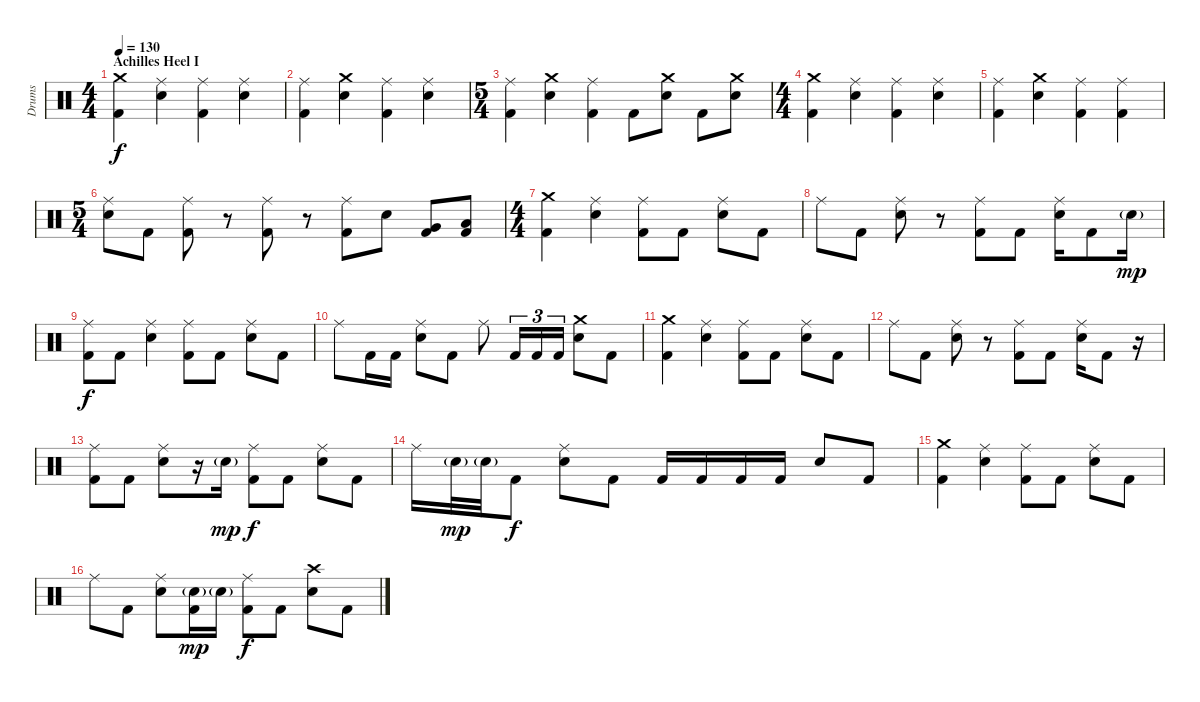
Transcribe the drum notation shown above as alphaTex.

\track ("Drums" "Drums") {instrument percussion}
\staff {score}
\articulation defaults
\ts (4 4)
\section ("" "Achilles Heel I")
\tempo 130
\clef neutral
\ks c
("Crash medium (hit)" "Kick (hit) 2").4{dy f} ("Ride (middle)" "Electric Snare (hit)").4 ("Ride (middle)" "Kick (hit) 2").4 ("Ride (middle)" "Electric Snare (hit)").4 |
("Ride (middle)" "Kick (hit) 2").4 ("Crash medium (hit)" "Electric Snare (hit)").4 ("Ride (middle)" "Kick (hit) 2").4 ("Ride (middle)" "Electric Snare (hit)").4 |
\ts (5 4)
("Ride (middle)" "Kick (hit) 2").4 ("Crash medium (hit)" "Electric Snare (hit)").4 ("Ride (middle)" "Kick (hit) 2").4 "Kick (hit) 2".8 ("Crash medium (hit)" "Electric Snare (hit)").8 "Kick (hit) 2".8 ("Crash medium (hit)" "Electric Snare (hit)").8 |
\ts (4 4)
("Crash medium (hit)" "Kick (hit) 2").4 ("Ride (middle)" "Electric Snare (hit)").4 ("Ride (middle)" "Kick (hit) 2").4 ("Ride (middle)" "Electric Snare (hit)").4 |
("Ride (middle)" "Kick (hit) 2").4 ("Crash medium (hit)" "Electric Snare (hit)").4 ("Ride (middle)" "Kick (hit) 2").4 ("Ride (middle)" "Kick (hit) 2").4 |
\ts (5 4)
("Ride (middle)" "Electric Snare (hit)").8 "Kick (hit) 2".8 ("Ride (middle)" "Kick (hit) 2").8 r.8 ("Ride (middle)" "Kick (hit) 2").8 r.8 ("Ride (middle)" "Kick (hit) 2").8 "Electric Snare (hit)".8 ("Very Low Tom (hit)" "Kick (hit) 2").8 ("Low Floor Tom (hit)" "Kick (hit) 2").8 |
\ts (4 4)
\section ("" "")
("Crash medium (hit)" "Kick (hit) 2").4 ("Ride (middle)" "Electric Snare (hit)").4 ("Ride (middle)" "Kick (hit) 2").8 "Kick (hit) 2".8 ("Ride (middle)" "Electric Snare (hit)").8 "Kick (hit) 2".8 |
"Ride (middle)".8 "Kick (hit) 2".8 ("Ride (middle)" "Electric Snare (hit)").8 r.8 ("Ride (middle)" "Kick (hit) 2").8 "Kick (hit) 2".8 ("Ride (middle)" "Electric Snare (hit)").16 "Kick (hit) 2".8 "Electric Snare (hit)"{g}.16{dy mp} |
("Ride (middle)" "Kick (hit) 2").8{dy f} "Kick (hit) 2".8 ("Ride (middle)" "Electric Snare (hit)").4 ("Ride (middle)" "Kick (hit) 2").8 "Kick (hit) 2".8 ("Ride (middle)" "Electric Snare (hit)").8 "Kick (hit) 2".8 |
"Ride (middle)".8 "Kick (hit) 2".16 "Kick (hit) 2".16 ("Ride (middle)" "Electric Snare (hit)").8 "Kick (hit) 2".8 "Ride (middle)".8 "Kick (hit) 2".16{tu (3 2)} "Kick (hit) 2".16{tu (3 2)} "Kick (hit) 2".16{tu (3 2)} ("Crash medium (hit)" "Electric Snare (hit)").8 "Kick (hit) 2".8 |
\section ("" "")
("Crash medium (hit)" "Kick (hit) 2").4 ("Ride (middle)" "Electric Snare (hit)").4 ("Ride (middle)" "Kick (hit) 2").8 "Kick (hit) 2".8 ("Ride (middle)" "Electric Snare (hit)").8 "Kick (hit) 2".8 |
"Ride (middle)".8 "Kick (hit) 2".8 ("Ride (middle)" "Electric Snare (hit)").8 r.8 ("Ride (middle)" "Kick (hit) 2").8 "Kick (hit) 2".8 ("Ride (middle)" "Electric Snare (hit)").16 "Kick (hit) 2".8 r.16 |
("Ride (middle)" "Kick (hit) 2").8 "Kick (hit) 2".8 ("Ride (middle)" "Electric Snare (hit)").8 r.16 "Electric Snare (hit)"{g}.16{dy mp} ("Ride (middle)" "Kick (hit) 2").8{dy f} "Kick (hit) 2".8 ("Ride (middle)" "Electric Snare (hit)").8 "Kick (hit) 2".8 |
"Ride (middle)".16 "Electric Snare (hit)"{g}.32{dy mp} "Electric Snare (hit)"{g}.32 "Kick (hit) 2".8{dy f} ("Ride (middle)" "Electric Snare (hit)").8 "Kick (hit) 2".8 "Kick (hit) 2".16 "Kick (hit) 2".16 "Kick (hit) 2".16 "Kick (hit) 2".16 "Electric Snare (hit)".8 "Kick (hit) 2".8 |
("Crash medium (hit)" "Kick (hit) 2").4 ("Ride (middle)" "Electric Snare (hit)").4 ("Ride (middle)" "Kick (hit) 2").8 "Kick (hit) 2".8 ("Ride (middle)" "Electric Snare (hit)").8 "Kick (hit) 2".8 |
"Ride (middle)".8 "Kick (hit) 2".8 ("Ride (middle)" "Electric Snare (hit)").8 ("Electric Snare (hit)"{g} "Kick (hit) 2").16{dy mp} "Electric Snare (hit)"{g}.16 ("Ride (middle)" "Kick (hit) 2").8{dy f} "Kick (hit) 2".8 ("Crash high (hit)" "Electric Snare (hit)").8 "Kick (hit) 2".8
